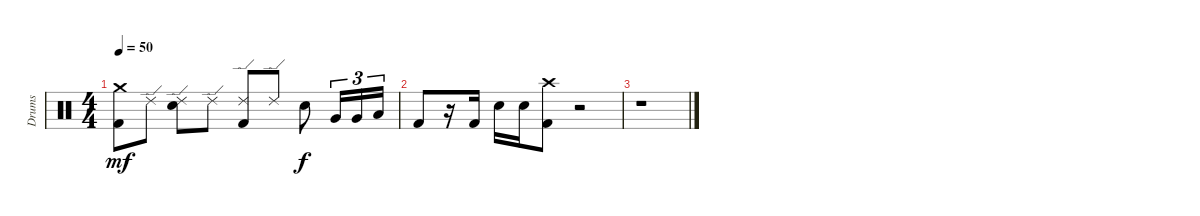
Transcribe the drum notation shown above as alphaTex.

\track ("Drums" "Drums") {instrument percussion}
\staff {score}
\articulation defaults
\ts (4 4)
\tempo 50
\clef neutral
\ks c
("Crash medium (hit)" "Kick (hit) 2").8{dy mf} "Ride (edge) 2".8 ("Ride (edge) 2" "Electric Snare (hit)").8 "Ride (edge) 2".8 ("Ride (edge) 2" "Kick (hit) 2").8 "Ride (edge) 2".8 "Electric Snare (hit)".8{dy f} "Very Low Tom (hit)".16{tu (3 2)} "Very Low Tom (hit)".16{tu (3 2)} "Low Floor Tom (hit)".16{tu (3 2)} |
"Kick (hit) 2".8 r.16 "Kick (hit) 2".16 "Electric Snare (hit)".16 "Electric Snare (hit)".16 ("Crash high (hit)" "Kick (hit) 2").8 r.2 |
r.1
